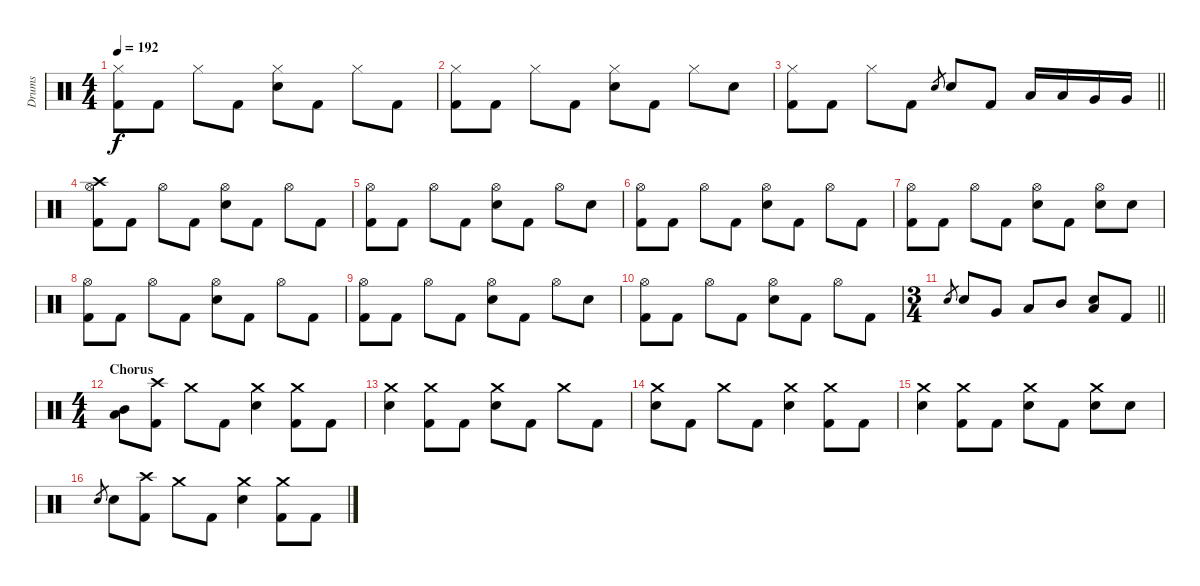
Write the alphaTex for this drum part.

\track ("Drums" "Drums") {instrument percussion}
\staff {score}
\articulation defaults
\ts (4 4)
\tempo 192
\clef neutral
\ks c
("Hi-Hat (closed)" "Kick (hit) 2").8{dy f} "Kick (hit) 2".8 "Hi-Hat (closed)".8 "Kick (hit) 2".8 ("Hi-Hat (closed)" "Electric Snare (hit)").8 "Kick (hit) 2".8 "Hi-Hat (closed)".8 "Kick (hit) 2".8 |
("Hi-Hat (closed)" "Kick (hit) 2").8 "Kick (hit) 2".8 "Hi-Hat (closed)".8 "Kick (hit) 2".8 ("Hi-Hat (closed)" "Electric Snare (hit)").8 "Kick (hit) 2".8 "Hi-Hat (closed)".8 "Electric Snare (hit)".8 |
\barLineRight lightlight
("Hi-Hat (closed)" "Kick (hit) 2").8 "Kick (hit) 2".8 "Hi-Hat (closed)".8 "Kick (hit) 2".8 "Electric Snare (hit)".8{gr} "Electric Snare (hit)".8 "Kick (hit) 2".8 "Low Floor Tom (hit)".16 "Low Floor Tom (hit)".16 "Very Low Tom (hit)".16 "Very Low Tom (hit)".16 |
("Crash high (hit)" "Hi-Hat (open)" "Kick (hit) 2").8 "Kick (hit) 2".8 "Hi-Hat (open)".8 "Kick (hit) 2".8 ("Hi-Hat (open)" "Electric Snare (hit)").8 "Kick (hit) 2".8 "Hi-Hat (open)".8 "Kick (hit) 2".8 |
("Hi-Hat (open)" "Kick (hit) 2").8 "Kick (hit) 2".8 "Hi-Hat (open)".8 "Kick (hit) 2".8 ("Hi-Hat (open)" "Electric Snare (hit)").8 "Kick (hit) 2".8 "Hi-Hat (open)".8 "Electric Snare (hit)".8 |
("Hi-Hat (open)" "Kick (hit) 2").8 "Kick (hit) 2".8 "Hi-Hat (open)".8 "Kick (hit) 2".8 ("Hi-Hat (open)" "Electric Snare (hit)").8 "Kick (hit) 2".8 "Hi-Hat (open)".8 "Kick (hit) 2".8 |
("Hi-Hat (open)" "Kick (hit) 2").8 "Kick (hit) 2".8 "Hi-Hat (open)".8 "Kick (hit) 2".8 ("Hi-Hat (open)" "Electric Snare (hit)").8 "Kick (hit) 2".8 ("Hi-Hat (open)" "Electric Snare (hit)").8 "Electric Snare (hit)".8 |
("Hi-Hat (open)" "Kick (hit) 2").8 "Kick (hit) 2".8 "Hi-Hat (open)".8 "Kick (hit) 2".8 ("Hi-Hat (open)" "Electric Snare (hit)").8 "Kick (hit) 2".8 "Hi-Hat (open)".8 "Kick (hit) 2".8 |
("Hi-Hat (open)" "Kick (hit) 2").8 "Kick (hit) 2".8 "Hi-Hat (open)".8 "Kick (hit) 2".8 ("Hi-Hat (open)" "Electric Snare (hit)").8 "Kick (hit) 2".8 "Hi-Hat (open)".8 "Electric Snare (hit)".8 |
("Hi-Hat (open)" "Kick (hit) 2").8 "Kick (hit) 2".8 "Hi-Hat (open)".8 "Kick (hit) 2".8 ("Hi-Hat (open)" "Electric Snare (hit)").8 "Kick (hit) 2".8 "Hi-Hat (open)".8 "Kick (hit) 2".8 |
\ts (3 4)
\barLineRight lightlight "Electric Snare (hit)".8{gr} "Electric Snare (hit)".8 "Very Low Tom (hit)".8 "Low Tom (hit)".8 "Mid Tom (hit)".8
("Electric Snare (hit)" "Low Floor Tom (hit)").8 "Kick (hit) 2".8 |
\ts (4 4)
\section ("" "Chorus")
("Mid Tom (hit)" "Low Floor Tom (hit)").8 ("Crash high (hit)" "Kick (hit) 2").8 "Crash medium (hit)".8 "Kick (hit) 2".8 ("Crash medium (hit)" "Electric Snare (hit)").4 ("Crash medium (hit)" "Kick (hit) 2").8 "Kick (hit) 2".8 |
("Crash medium (hit)" "Electric Snare (hit)").4 ("Crash medium (hit)" "Kick (hit) 2").8 "Kick (hit) 2".8 ("Crash medium (hit)" "Electric Snare (hit)").8 "Kick (hit) 2".8 "Crash medium (hit)".8 "Kick (hit) 2".8 |
("Crash medium (hit)" "Electric Snare (hit)").8 "Kick (hit) 2".8 "Crash medium (hit)".8 "Kick (hit) 2".8 ("Crash medium (hit)" "Electric Snare (hit)").4 ("Crash medium (hit)" "Kick (hit) 2").8 "Kick (hit) 2".8 |
("Crash medium (hit)" "Electric Snare (hit)").4 ("Crash medium (hit)" "Kick (hit) 2").8 "Kick (hit) 2".8 ("Crash medium (hit)" "Electric Snare (hit)").8 "Kick (hit) 2".8 ("Crash medium (hit)" "Electric Snare (hit)").8 "Electric Snare (hit)".8 |
"Electric Snare (hit)".8{gr} "Electric Snare (hit)".8 ("Crash high (hit)" "Kick (hit) 2").8 "Crash medium (hit)".8 "Kick (hit) 2".8 ("Crash medium (hit)" "Electric Snare (hit)").4 ("Crash medium (hit)" "Kick (hit) 2").8 "Kick (hit) 2".8
